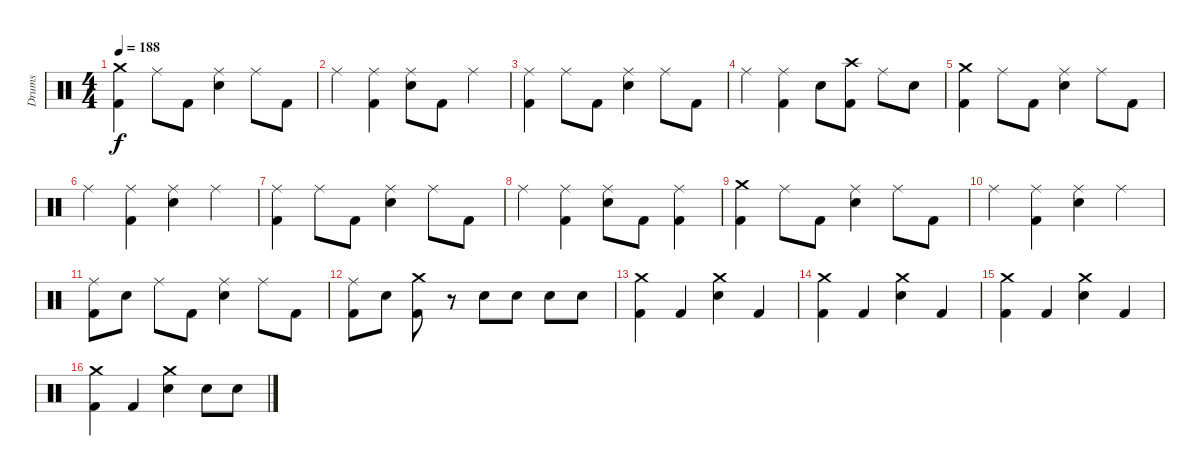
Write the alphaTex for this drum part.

\track ("Drums" "Drums") {instrument percussion}
\staff {score}
\articulation defaults
\ts (4 4)
\tempo 188
\clef neutral
\ks c
("Crash medium (hit)" "Kick (hit) 2").4{dy f} "Ride (middle)".8 "Kick (hit) 2".8 ("Ride (middle)" "Electric Snare (hit)").4 "Ride (middle)".8 "Kick (hit) 2".8 |
"Ride (middle)".4 ("Ride (middle)" "Kick (hit) 2").4 ("Ride (middle)" "Electric Snare (hit)").8 "Kick (hit) 2".8 "Ride (middle)".4 |
("Ride (middle)" "Kick (hit) 2").4 "Ride (middle)".8 "Kick (hit) 2".8 ("Ride (middle)" "Electric Snare (hit)").4 "Ride (middle)".8 "Kick (hit) 2".8 |
"Ride (middle)".4 ("Ride (middle)" "Kick (hit) 2").4 "Electric Snare (hit)".8 ("Crash high (hit)" "Kick (hit) 2").8 "Ride (middle)".8 "Electric Snare (hit)".8 |
("Crash medium (hit)" "Kick (hit) 2").4 "Ride (middle)".8 "Kick (hit) 2".8 ("Ride (middle)" "Electric Snare (hit)").4 "Ride (middle)".8 "Kick (hit) 2".8 |
"Ride (middle)".4 ("Ride (middle)" "Kick (hit) 2").4 ("Ride (middle)" "Electric Snare (hit)").4 "Ride (middle)".4 |
("Ride (middle)" "Kick (hit) 2").4 "Ride (middle)".8 "Kick (hit) 2".8 ("Ride (middle)" "Electric Snare (hit)").4 "Ride (middle)".8 "Kick (hit) 2".8 |
"Ride (middle)".4 ("Ride (middle)" "Kick (hit) 2").4 ("Ride (middle)" "Electric Snare (hit)").8 "Kick (hit) 2".8 ("Ride (middle)" "Kick (hit) 2").4 |
("Crash medium (hit)" "Kick (hit) 2").4 "Ride (middle)".8 "Kick (hit) 2".8 ("Ride (middle)" "Electric Snare (hit)").4 "Ride (middle)".8 "Kick (hit) 2".8 |
"Ride (middle)".4 ("Ride (middle)" "Kick (hit) 2").4 ("Ride (middle)" "Electric Snare (hit)").4 "Ride (middle)".4 |
("Ride (middle)" "Kick (hit) 2").8 "Electric Snare (hit)".8 "Ride (middle)".8 "Kick (hit) 2".8 ("Ride (middle)" "Electric Snare (hit)").4 "Ride (middle)".8 "Kick (hit) 2".8 |
("Ride (middle)" "Kick (hit) 2").8 "Electric Snare (hit)".8 ("Crash medium (hit)" "Kick (hit) 2").8 r.8 "Electric Snare (hit)".8 "Electric Snare (hit)".8 "Electric Snare (hit)".8 "Electric Snare (hit)".8 |
("Crash medium (hit)" "Kick (hit) 2").4 "Kick (hit) 2".4 ("Crash medium (hit)" "Electric Snare (hit)").4 "Kick (hit) 2".4 |
("Crash medium (hit)" "Kick (hit) 2").4 "Kick (hit) 2".4 ("Crash medium (hit)" "Electric Snare (hit)").4 "Kick (hit) 2".4 |
("Crash medium (hit)" "Kick (hit) 2").4 "Kick (hit) 2".4 ("Crash medium (hit)" "Electric Snare (hit)").4 "Kick (hit) 2".4 |
("Crash medium (hit)" "Kick (hit) 2").4 "Kick (hit) 2".4 ("Crash medium (hit)" "Electric Snare (hit)").4 "Electric Snare (hit)".8 "Electric Snare (hit)".8
